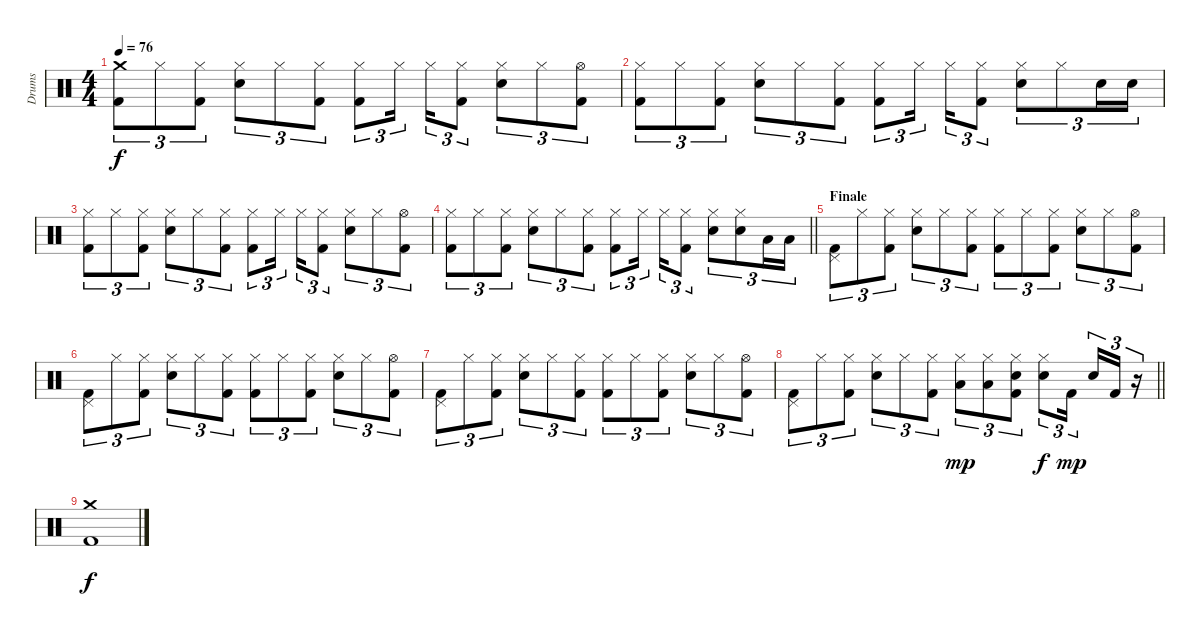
\track ("Drums" "Drums") {instrument percussion}
\staff {score}
\articulation defaults
\ts (4 4)
\tempo 76
\clef neutral
\ks c
("Crash medium (hit)" "Kick (hit) 2").8{tu (3 2) dy f} "Hi-Hat (closed)".8{tu (3 2)} ("Hi-Hat (closed)" "Kick (hit) 2").8{tu (3 2)} ("Hi-Hat (closed)" "Snare (hit) 2").8{tu (3 2)} "Hi-Hat (closed)".8{tu (3 2)} ("Hi-Hat (closed)" "Kick (hit) 2").8{tu (3 2)} ("Hi-Hat (closed)" "Kick (hit) 2").8{tu (3 2)} "Hi-Hat (closed)".16{tu (3 2) beam splitsecondary} "Hi-Hat (closed)".16{tu (3 2)} ("Hi-Hat (closed)" "Kick (hit) 2").8{tu (3 2)} ("Hi-Hat (closed)" "Snare (hit) 2").8{tu (3 2)} "Hi-Hat (closed)".8{tu (3 2)} ("Hi-Hat (open)" "Kick (hit) 2").8{tu (3 2)} |
("Hi-Hat (closed)" "Kick (hit) 2").8{tu (3 2)} "Hi-Hat (closed)".8{tu (3 2)} ("Hi-Hat (closed)" "Kick (hit) 2").8{tu (3 2)} ("Hi-Hat (closed)" "Snare (hit) 2").8{tu (3 2)} "Hi-Hat (closed)".8{tu (3 2)} ("Hi-Hat (closed)" "Kick (hit) 2").8{tu (3 2)} ("Hi-Hat (closed)" "Kick (hit) 2").8{tu (3 2)} "Hi-Hat (closed)".16{tu (3 2) beam splitsecondary} "Hi-Hat (closed)".16{tu (3 2)} ("Hi-Hat (closed)" "Kick (hit) 2").8{tu (3 2)} ("Hi-Hat (closed)" "Snare (hit) 2").8{tu (3 2)} "Hi-Hat (closed)".8{tu (3 2)} "Snare (hit) 2".16{tu (3 2)} "Snare (hit) 2".16{tu (3 2)} |
("Hi-Hat (closed)" "Kick (hit) 2").8{tu (3 2)} "Hi-Hat (closed)".8{tu (3 2)} ("Hi-Hat (closed)" "Kick (hit) 2").8{tu (3 2)} ("Hi-Hat (closed)" "Snare (hit) 2").8{tu (3 2)} "Hi-Hat (closed)".8{tu (3 2)} ("Hi-Hat (closed)" "Kick (hit) 2").8{tu (3 2)} ("Hi-Hat (closed)" "Kick (hit) 2").8{tu (3 2)} "Hi-Hat (closed)".16{tu (3 2) beam splitsecondary} "Hi-Hat (closed)".16{tu (3 2)} ("Hi-Hat (closed)" "Kick (hit) 2").8{tu (3 2)} ("Hi-Hat (closed)" "Snare (hit) 2").8{tu (3 2)} "Hi-Hat (closed)".8{tu (3 2)} ("Hi-Hat (open)" "Kick (hit) 2").8{tu (3 2)} |
\barLineRight lightlight
("Hi-Hat (closed)" "Kick (hit) 2").8{tu (3 2)} "Hi-Hat (closed)".8{tu (3 2)} ("Hi-Hat (closed)" "Kick (hit) 2").8{tu (3 2)} ("Hi-Hat (closed)" "Snare (hit) 2").8{tu (3 2)} "Hi-Hat (closed)".8{tu (3 2)} ("Hi-Hat (closed)" "Kick (hit) 2").8{tu (3 2)} ("Hi-Hat (closed)" "Kick (hit) 2").8{tu (3 2)} "Hi-Hat (closed)".16{tu (3 2) beam splitsecondary} "Hi-Hat (closed)".16{tu (3 2)} ("Hi-Hat (closed)" "Kick (hit) 2").8{tu (3 2)} ("Hi-Hat (closed)" "Snare (hit) 2").8{tu (3 2)} ("Hi-Hat (closed)" "Snare (hit) 2").8{tu (3 2)} "Low Tom (hit)".16{tu (3 2)} "Low Tom (hit)".16{tu (3 2)} |
\section ("" "Finale")
("Pedal Hi-Hat (hit)" "Kick (hit) 2").8{tu (3 2)} "Hi-Hat (closed)".8{tu (3 2)} ("Hi-Hat (closed)" "Kick (hit) 2").8{tu (3 2)} ("Hi-Hat (closed)" "Snare (hit) 2").8{tu (3 2)} "Hi-Hat (closed)".8{tu (3 2)} ("Hi-Hat (closed)" "Kick (hit) 2").8{tu (3 2)} ("Hi-Hat (closed)" "Kick (hit) 2").8{tu (3 2)} "Hi-Hat (closed)".8{tu (3 2)} ("Hi-Hat (closed)" "Kick (hit) 2").8{tu (3 2)} ("Hi-Hat (closed)" "Snare (hit) 2").8{tu (3 2)} "Hi-Hat (closed)".8{tu (3 2)} ("Hi-Hat (open)" "Kick (hit) 2").8{tu (3 2)} |
("Pedal Hi-Hat (hit)" "Kick (hit) 2").8{tu (3 2)} "Hi-Hat (closed)".8{tu (3 2)} ("Hi-Hat (closed)" "Kick (hit) 2").8{tu (3 2)} ("Hi-Hat (closed)" "Snare (hit) 2").8{tu (3 2)} "Hi-Hat (closed)".8{tu (3 2)} ("Hi-Hat (closed)" "Kick (hit) 2").8{tu (3 2)} ("Hi-Hat (closed)" "Kick (hit) 2").8{tu (3 2)} "Hi-Hat (closed)".8{tu (3 2)} ("Hi-Hat (closed)" "Kick (hit) 2").8{tu (3 2)} ("Hi-Hat (closed)" "Snare (hit) 2").8{tu (3 2)} "Hi-Hat (closed)".8{tu (3 2)} ("Hi-Hat (open)" "Kick (hit) 2").8{tu (3 2)} |
("Pedal Hi-Hat (hit)" "Kick (hit) 2").8{tu (3 2)} "Hi-Hat (closed)".8{tu (3 2)} ("Hi-Hat (closed)" "Kick (hit) 2").8{tu (3 2)} ("Hi-Hat (closed)" "Snare (hit) 2").8{tu (3 2)} "Hi-Hat (closed)".8{tu (3 2)} ("Hi-Hat (closed)" "Kick (hit) 2").8{tu (3 2)} ("Hi-Hat (closed)" "Kick (hit) 2").8{tu (3 2)} "Hi-Hat (closed)".8{tu (3 2)} ("Hi-Hat (closed)" "Kick (hit) 2").8{tu (3 2)} ("Hi-Hat (closed)" "Snare (hit) 2").8{tu (3 2)} "Hi-Hat (closed)".8{tu (3 2)} ("Hi-Hat (open)" "Kick (hit) 2").8{tu (3 2)} |
\barLineRight lightlight
("Pedal Hi-Hat (hit)" "Kick (hit) 2").8{tu (3 2)} "Hi-Hat (closed)".8{tu (3 2)} ("Hi-Hat (closed)" "Kick (hit) 2").8{tu (3 2)} ("Hi-Hat (closed)" "Snare (hit) 2").8{tu (3 2)} "Hi-Hat (closed)".8{tu (3 2)} ("Hi-Hat (closed)" "Kick (hit) 2").8{tu (3 2)} ("Hi-Hat (closed)" "Low Tom (hit)").8{tu (3 2) dy mp} ("Hi-Hat (closed)" "Low Tom (hit)").8{tu (3 2)} ("Hi-Hat (closed)" "Snare (hit) 2" "Kick (hit) 2").8{tu (3 2)} ("Hi-Hat (closed)" "Snare (hit) 2").8{tu (3 2) dy f} "Kick (hit) 2".16{tu (3 2) dy mp beam splitsecondary} "Snare (hit) 2".16{tu (3 2)} "Kick (hit) 2".16{tu (3 2)} r.16{tu (3 2)} |
("Crash medium (hit)" "Kick (hit) 2").1{dy f}
